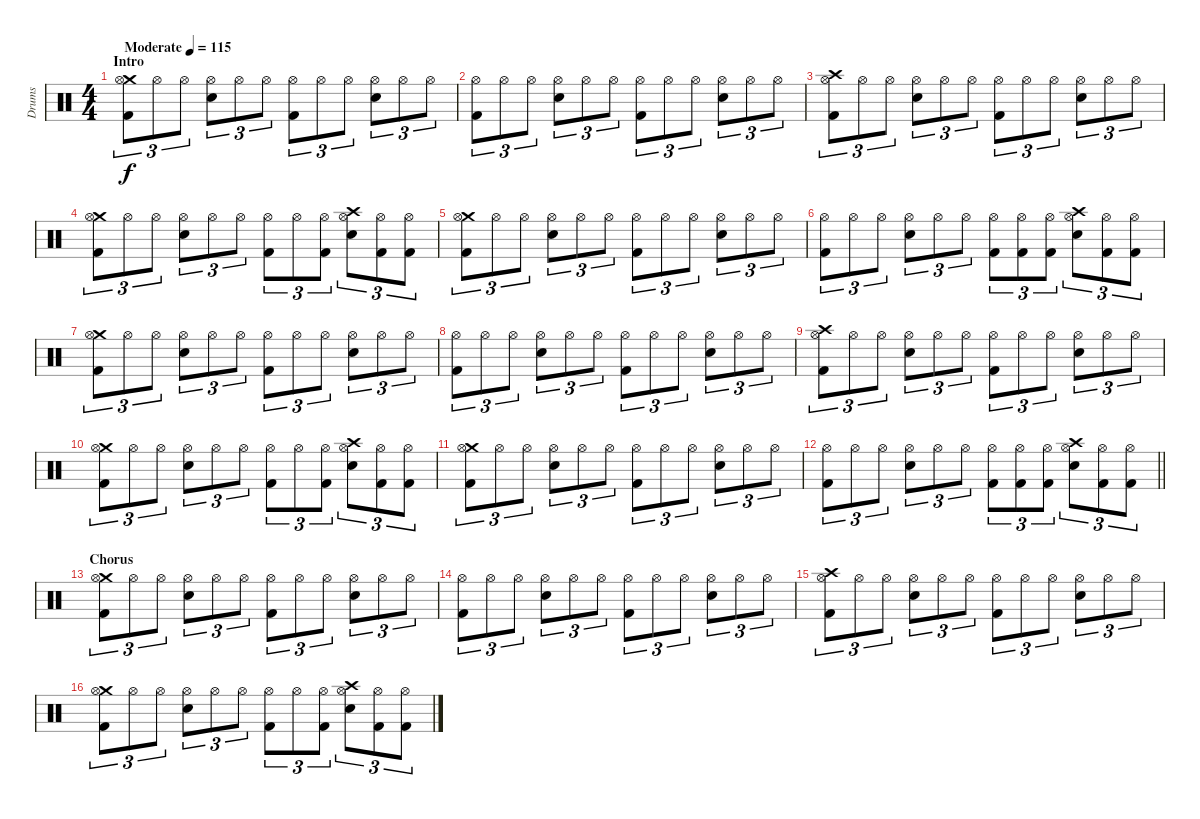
\track ("Drums" "Drums") {instrument percussion}
\staff {score}
\articulation defaults
\ts (4 4)
\section ("" "Intro")
\tempo (115 "Moderate")
\clef neutral
\ks c
("Crash medium (hit)" "Hi-Hat (open)" "Kick (hit) 2").8{tu (3 2) dy f} "Hi-Hat (open)".8{tu (3 2)} "Hi-Hat (open)".8{tu (3 2)} ("Hi-Hat (open)" "Snare (hit) 2").8{tu (3 2)} "Hi-Hat (open)".8{tu (3 2)} "Hi-Hat (open)".8{tu (3 2)} ("Hi-Hat (open)" "Kick (hit) 2").8{tu (3 2)} "Hi-Hat (open)".8{tu (3 2)} "Hi-Hat (open)".8{tu (3 2)} ("Hi-Hat (open)" "Snare (hit) 2").8{tu (3 2)} "Hi-Hat (open)".8{tu (3 2)} "Hi-Hat (open)".8{tu (3 2)} |
("Hi-Hat (open)" "Kick (hit) 2").8{tu (3 2)} "Hi-Hat (open)".8{tu (3 2)} "Hi-Hat (open)".8{tu (3 2)} ("Hi-Hat (open)" "Snare (hit) 2").8{tu (3 2)} "Hi-Hat (open)".8{tu (3 2)} "Hi-Hat (open)".8{tu (3 2)} ("Hi-Hat (open)" "Kick (hit) 2").8{tu (3 2)} "Hi-Hat (open)".8{tu (3 2)} "Hi-Hat (open)".8{tu (3 2)} ("Hi-Hat (open)" "Snare (hit) 2").8{tu (3 2)} "Hi-Hat (open)".8{tu (3 2)} "Hi-Hat (open)".8{tu (3 2)} |
("Crash high (hit)" "Hi-Hat (open)" "Kick (hit) 2").8{tu (3 2)} "Hi-Hat (open)".8{tu (3 2)} "Hi-Hat (open)".8{tu (3 2)} ("Hi-Hat (open)" "Snare (hit) 2").8{tu (3 2)} "Hi-Hat (open)".8{tu (3 2)} "Hi-Hat (open)".8{tu (3 2)} ("Hi-Hat (open)" "Kick (hit) 2").8{tu (3 2)} "Hi-Hat (open)".8{tu (3 2)} "Hi-Hat (open)".8{tu (3 2)} ("Hi-Hat (open)" "Snare (hit) 2").8{tu (3 2)} "Hi-Hat (open)".8{tu (3 2)} "Hi-Hat (open)".8{tu (3 2)} |
("Crash medium (hit)" "Hi-Hat (open)" "Kick (hit) 2").8{tu (3 2)} "Hi-Hat (open)".8{tu (3 2)} "Hi-Hat (open)".8{tu (3 2)} ("Hi-Hat (open)" "Snare (hit) 2").8{tu (3 2)} "Hi-Hat (open)".8{tu (3 2)} "Hi-Hat (open)".8{tu (3 2)} ("Hi-Hat (open)" "Kick (hit) 2").8{tu (3 2)} "Hi-Hat (open)".8{tu (3 2)} ("Hi-Hat (open)" "Kick (hit) 2").8{tu (3 2)} ("Crash high (hit)" "Hi-Hat (open)" "Snare (hit) 2").8{tu (3 2)} ("Hi-Hat (open)" "Kick (hit) 2").8{tu (3 2)} ("Hi-Hat (open)" "Kick (hit) 2").8{tu (3 2)} |
("Crash medium (hit)" "Hi-Hat (open)" "Kick (hit) 2").8{tu (3 2)} "Hi-Hat (open)".8{tu (3 2)} "Hi-Hat (open)".8{tu (3 2)} ("Hi-Hat (open)" "Snare (hit) 2").8{tu (3 2)} "Hi-Hat (open)".8{tu (3 2)} "Hi-Hat (open)".8{tu (3 2)} ("Hi-Hat (open)" "Kick (hit) 2").8{tu (3 2)} "Hi-Hat (open)".8{tu (3 2)} "Hi-Hat (open)".8{tu (3 2)} ("Hi-Hat (open)" "Snare (hit) 2").8{tu (3 2)} "Hi-Hat (open)".8{tu (3 2)} "Hi-Hat (open)".8{tu (3 2)} |
("Hi-Hat (open)" "Kick (hit) 2").8{tu (3 2)} "Hi-Hat (open)".8{tu (3 2)} "Hi-Hat (open)".8{tu (3 2)} ("Hi-Hat (open)" "Snare (hit) 2").8{tu (3 2)} "Hi-Hat (open)".8{tu (3 2)} "Hi-Hat (open)".8{tu (3 2)} ("Hi-Hat (open)" "Kick (hit) 2").8{tu (3 2)} ("Hi-Hat (open)" "Kick (hit) 2").8{tu (3 2)} ("Hi-Hat (open)" "Kick (hit) 2").8{tu (3 2)} ("Crash high (hit)" "Hi-Hat (open)" "Snare (hit) 2").8{tu (3 2)} ("Hi-Hat (open)" "Kick (hit) 2").8{tu (3 2)} ("Hi-Hat (open)" "Kick (hit) 2").8{tu (3 2)} |
("Crash medium (hit)" "Hi-Hat (open)" "Kick (hit) 2").8{tu (3 2)} "Hi-Hat (open)".8{tu (3 2)} "Hi-Hat (open)".8{tu (3 2)} ("Hi-Hat (open)" "Snare (hit) 2").8{tu (3 2)} "Hi-Hat (open)".8{tu (3 2)} "Hi-Hat (open)".8{tu (3 2)} ("Hi-Hat (open)" "Kick (hit) 2").8{tu (3 2)} "Hi-Hat (open)".8{tu (3 2)} "Hi-Hat (open)".8{tu (3 2)} ("Hi-Hat (open)" "Snare (hit) 2").8{tu (3 2)} "Hi-Hat (open)".8{tu (3 2)} "Hi-Hat (open)".8{tu (3 2)} |
("Hi-Hat (open)" "Kick (hit) 2").8{tu (3 2)} "Hi-Hat (open)".8{tu (3 2)} "Hi-Hat (open)".8{tu (3 2)} ("Hi-Hat (open)" "Snare (hit) 2").8{tu (3 2)} "Hi-Hat (open)".8{tu (3 2)} "Hi-Hat (open)".8{tu (3 2)} ("Hi-Hat (open)" "Kick (hit) 2").8{tu (3 2)} "Hi-Hat (open)".8{tu (3 2)} "Hi-Hat (open)".8{tu (3 2)} ("Hi-Hat (open)" "Snare (hit) 2").8{tu (3 2)} "Hi-Hat (open)".8{tu (3 2)} "Hi-Hat (open)".8{tu (3 2)} |
("Crash high (hit)" "Hi-Hat (open)" "Kick (hit) 2").8{tu (3 2)} "Hi-Hat (open)".8{tu (3 2)} "Hi-Hat (open)".8{tu (3 2)} ("Hi-Hat (open)" "Snare (hit) 2").8{tu (3 2)} "Hi-Hat (open)".8{tu (3 2)} "Hi-Hat (open)".8{tu (3 2)} ("Hi-Hat (open)" "Kick (hit) 2").8{tu (3 2)} "Hi-Hat (open)".8{tu (3 2)} "Hi-Hat (open)".8{tu (3 2)} ("Hi-Hat (open)" "Snare (hit) 2").8{tu (3 2)} "Hi-Hat (open)".8{tu (3 2)} "Hi-Hat (open)".8{tu (3 2)} |
("Crash medium (hit)" "Hi-Hat (open)" "Kick (hit) 2").8{tu (3 2)} "Hi-Hat (open)".8{tu (3 2)} "Hi-Hat (open)".8{tu (3 2)} ("Hi-Hat (open)" "Snare (hit) 2").8{tu (3 2)} "Hi-Hat (open)".8{tu (3 2)} "Hi-Hat (open)".8{tu (3 2)} ("Hi-Hat (open)" "Kick (hit) 2").8{tu (3 2)} "Hi-Hat (open)".8{tu (3 2)} ("Hi-Hat (open)" "Kick (hit) 2").8{tu (3 2)} ("Crash high (hit)" "Hi-Hat (open)" "Snare (hit) 2").8{tu (3 2)} ("Hi-Hat (open)" "Kick (hit) 2").8{tu (3 2)} ("Hi-Hat (open)" "Kick (hit) 2").8{tu (3 2)} |
("Crash medium (hit)" "Hi-Hat (open)" "Kick (hit) 2").8{tu (3 2)} "Hi-Hat (open)".8{tu (3 2)} "Hi-Hat (open)".8{tu (3 2)} ("Hi-Hat (open)" "Snare (hit) 2").8{tu (3 2)} "Hi-Hat (open)".8{tu (3 2)} "Hi-Hat (open)".8{tu (3 2)} ("Hi-Hat (open)" "Kick (hit) 2").8{tu (3 2)} "Hi-Hat (open)".8{tu (3 2)} "Hi-Hat (open)".8{tu (3 2)} ("Hi-Hat (open)" "Snare (hit) 2").8{tu (3 2)} "Hi-Hat (open)".8{tu (3 2)} "Hi-Hat (open)".8{tu (3 2)} |
\barLineRight lightlight
("Hi-Hat (open)" "Kick (hit) 2").8{tu (3 2)} "Hi-Hat (open)".8{tu (3 2)} "Hi-Hat (open)".8{tu (3 2)} ("Hi-Hat (open)" "Snare (hit) 2").8{tu (3 2)} "Hi-Hat (open)".8{tu (3 2)} "Hi-Hat (open)".8{tu (3 2)} ("Hi-Hat (open)" "Kick (hit) 2").8{tu (3 2)} ("Hi-Hat (open)" "Kick (hit) 2").8{tu (3 2)} ("Hi-Hat (open)" "Kick (hit) 2").8{tu (3 2)} ("Crash high (hit)" "Hi-Hat (open)" "Snare (hit) 2").8{tu (3 2)} ("Hi-Hat (open)" "Kick (hit) 2").8{tu (3 2)} ("Hi-Hat (open)" "Kick (hit) 2").8{tu (3 2)} |
\section ("" "Chorus")
("Crash medium (hit)" "Hi-Hat (open)" "Kick (hit) 2").8{tu (3 2)} "Hi-Hat (open)".8{tu (3 2)} "Hi-Hat (open)".8{tu (3 2)} ("Hi-Hat (open)" "Snare (hit) 2").8{tu (3 2)} "Hi-Hat (open)".8{tu (3 2)} "Hi-Hat (open)".8{tu (3 2)} ("Hi-Hat (open)" "Kick (hit) 2").8{tu (3 2)} "Hi-Hat (open)".8{tu (3 2)} "Hi-Hat (open)".8{tu (3 2)} ("Hi-Hat (open)" "Snare (hit) 2").8{tu (3 2)} "Hi-Hat (open)".8{tu (3 2)} "Hi-Hat (open)".8{tu (3 2)} |
("Hi-Hat (open)" "Kick (hit) 2").8{tu (3 2)} "Hi-Hat (open)".8{tu (3 2)} "Hi-Hat (open)".8{tu (3 2)} ("Hi-Hat (open)" "Snare (hit) 2").8{tu (3 2)} "Hi-Hat (open)".8{tu (3 2)} "Hi-Hat (open)".8{tu (3 2)} ("Hi-Hat (open)" "Kick (hit) 2").8{tu (3 2)} "Hi-Hat (open)".8{tu (3 2)} "Hi-Hat (open)".8{tu (3 2)} ("Hi-Hat (open)" "Snare (hit) 2").8{tu (3 2)} "Hi-Hat (open)".8{tu (3 2)} "Hi-Hat (open)".8{tu (3 2)} |
("Crash high (hit)" "Hi-Hat (open)" "Kick (hit) 2").8{tu (3 2)} "Hi-Hat (open)".8{tu (3 2)} "Hi-Hat (open)".8{tu (3 2)} ("Hi-Hat (open)" "Snare (hit) 2").8{tu (3 2)} "Hi-Hat (open)".8{tu (3 2)} "Hi-Hat (open)".8{tu (3 2)} ("Hi-Hat (open)" "Kick (hit) 2").8{tu (3 2)} "Hi-Hat (open)".8{tu (3 2)} "Hi-Hat (open)".8{tu (3 2)} ("Hi-Hat (open)" "Snare (hit) 2").8{tu (3 2)} "Hi-Hat (open)".8{tu (3 2)} "Hi-Hat (open)".8{tu (3 2)} |
("Crash medium (hit)" "Hi-Hat (open)" "Kick (hit) 2").8{tu (3 2)} "Hi-Hat (open)".8{tu (3 2)} "Hi-Hat (open)".8{tu (3 2)} ("Hi-Hat (open)" "Snare (hit) 2").8{tu (3 2)} "Hi-Hat (open)".8{tu (3 2)} "Hi-Hat (open)".8{tu (3 2)} ("Hi-Hat (open)" "Kick (hit) 2").8{tu (3 2)} "Hi-Hat (open)".8{tu (3 2)} ("Hi-Hat (open)" "Kick (hit) 2").8{tu (3 2)} ("Crash high (hit)" "Hi-Hat (open)" "Snare (hit) 2").8{tu (3 2)} ("Hi-Hat (open)" "Kick (hit) 2").8{tu (3 2)} ("Hi-Hat (open)" "Kick (hit) 2").8{tu (3 2)}
